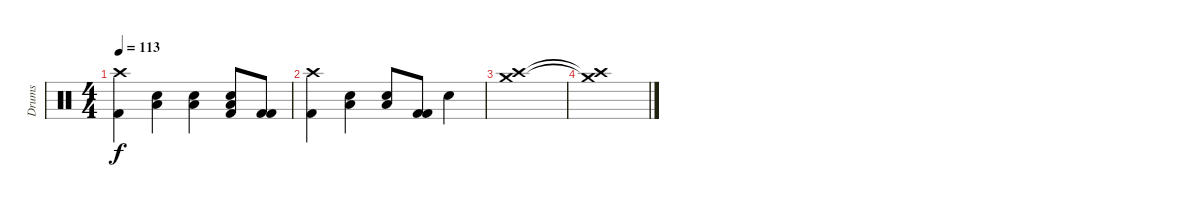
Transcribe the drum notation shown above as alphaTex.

\track ("Drums" "Drums") {instrument percussion}
\staff {score}
\articulation defaults
\ts (4 4)
\tempo 113
\clef neutral
\ks c
("Crash high (hit)" "Kick (hit) 2").4{dy f} ("Low Tom (hit)" "Electric Snare (hit)").4 ("Low Tom (hit)" "Electric Snare (hit)").4 ("Low Tom (hit)" "Kick (hit) 2" "Electric Snare (hit)").8 ("Kick (hit) 2" "Kick (hit) 2").8 |
("Crash high (hit)" "Kick (hit) 2").4 ("Low Tom (hit)" "Electric Snare (hit)").4 ("Low Tom (hit)" "Electric Snare (hit)").8 ("Kick (hit) 2" "Kick (hit) 2").8 "Electric Snare (hit)".4 |
("Crash high (hit)" "Crash medium (hit)").1 |
("Crash high (hit)"{t} "Crash medium (hit)"{t}).1
